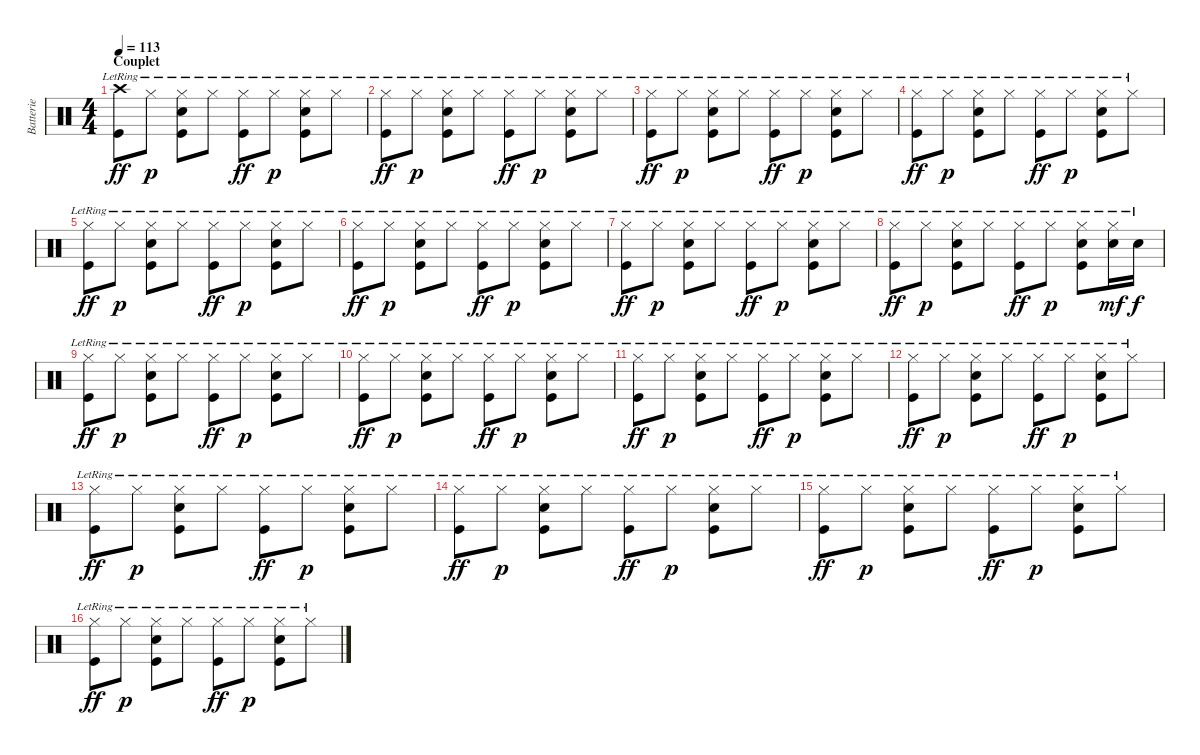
\track ("Batterie" "Batterie") {instrument percussion}
\staff {score}
\articulation defaults
\ts (4 4)
\section ("" "Couplet")
\tempo 113
\clef neutral
\ks c
("Crash high (hit)"{lr} "Kick (hit)"{lr}).8{dy ff} "Hi-Hat (closed)"{lr}.8{dy p} ("Hi-Hat (closed)"{lr} "Snare (hit) 2"{lr} "Kick (hit)"{lr}).8 "Hi-Hat (closed)"{lr}.8 ("Hi-Hat (closed)"{lr} "Kick (hit)"{lr}).8{dy ff} "Hi-Hat (closed)"{lr}.8{dy p} ("Hi-Hat (closed)"{lr} "Snare (hit) 2"{lr} "Kick (hit)"{lr}).8 "Hi-Hat (closed)"{lr}.8 |
("Hi-Hat (closed)"{lr} "Kick (hit)"{lr}).8{dy ff} "Hi-Hat (closed)"{lr}.8{dy p} ("Hi-Hat (closed)"{lr} "Snare (hit) 2"{lr} "Kick (hit)"{lr}).8 "Hi-Hat (closed)"{lr}.8 ("Hi-Hat (closed)"{lr} "Kick (hit)"{lr}).8{dy ff} "Hi-Hat (closed)"{lr}.8{dy p} ("Hi-Hat (closed)"{lr} "Snare (hit) 2"{lr} "Kick (hit)"{lr}).8 "Hi-Hat (closed)"{lr}.8 |
("Hi-Hat (closed)"{lr} "Kick (hit)"{lr}).8{dy ff} "Hi-Hat (closed)"{lr}.8{dy p} ("Hi-Hat (closed)"{lr} "Snare (hit) 2"{lr} "Kick (hit)"{lr}).8 "Hi-Hat (closed)"{lr}.8 ("Hi-Hat (closed)"{lr} "Kick (hit)"{lr}).8{dy ff} "Hi-Hat (closed)"{lr}.8{dy p} ("Hi-Hat (closed)"{lr} "Snare (hit) 2"{lr} "Kick (hit)"{lr}).8 "Hi-Hat (closed)"{lr}.8 |
("Hi-Hat (closed)"{lr} "Kick (hit)"{lr}).8{dy ff} "Hi-Hat (closed)"{lr}.8{dy p} ("Hi-Hat (closed)"{lr} "Snare (hit) 2"{lr} "Kick (hit)"{lr}).8 "Hi-Hat (closed)"{lr}.8 ("Hi-Hat (closed)"{lr} "Kick (hit)"{lr}).8{dy ff} "Hi-Hat (closed)"{lr}.8{dy p} ("Hi-Hat (closed)"{lr} "Snare (hit) 2"{lr} "Kick (hit)"{lr}).8 "Hi-Hat (closed)"{lr}.8 |
("Hi-Hat (closed)"{lr} "Kick (hit)"{lr}).8{dy ff} "Hi-Hat (closed)"{lr}.8{dy p} ("Hi-Hat (closed)"{lr} "Snare (hit) 2"{lr} "Kick (hit)"{lr}).8 "Hi-Hat (closed)"{lr}.8 ("Hi-Hat (closed)"{lr} "Kick (hit)"{lr}).8{dy ff} "Hi-Hat (closed)"{lr}.8{dy p} ("Hi-Hat (closed)"{lr} "Snare (hit) 2"{lr} "Kick (hit)"{lr}).8 "Hi-Hat (closed)"{lr}.8 |
("Hi-Hat (closed)"{lr} "Kick (hit)"{lr}).8{dy ff} "Hi-Hat (closed)"{lr}.8{dy p} ("Hi-Hat (closed)"{lr} "Snare (hit) 2"{lr} "Kick (hit)"{lr}).8 "Hi-Hat (closed)"{lr}.8 ("Hi-Hat (closed)"{lr} "Kick (hit)"{lr}).8{dy ff} "Hi-Hat (closed)"{lr}.8{dy p} ("Hi-Hat (closed)"{lr} "Snare (hit) 2"{lr} "Kick (hit)"{lr}).8 "Hi-Hat (closed)"{lr}.8 |
("Hi-Hat (closed)"{lr} "Kick (hit)"{lr}).8{dy ff} "Hi-Hat (closed)"{lr}.8{dy p} ("Hi-Hat (closed)"{lr} "Snare (hit) 2"{lr} "Kick (hit)"{lr}).8 "Hi-Hat (closed)"{lr}.8 ("Hi-Hat (closed)"{lr} "Kick (hit)"{lr}).8{dy ff} "Hi-Hat (closed)"{lr}.8{dy p} ("Hi-Hat (closed)"{lr} "Snare (hit) 2"{lr} "Kick (hit)"{lr}).8 "Hi-Hat (closed)"{lr}.8 |
("Hi-Hat (closed)"{lr} "Kick (hit)"{lr}).8{dy ff} "Hi-Hat (closed)"{lr}.8{dy p} ("Hi-Hat (closed)"{lr} "Snare (hit) 2"{lr} "Kick (hit)"{lr}).8 "Hi-Hat (closed)"{lr}.8 ("Hi-Hat (closed)"{lr} "Kick (hit)"{lr}).8{dy ff} "Hi-Hat (closed)"{lr}.8{dy p} ("Hi-Hat (closed)"{lr} "Snare (hit) 2"{lr} "Kick (hit)"{lr}).8 ("Hi-Hat (closed)"{lr} "Snare (hit) 2"{lr}).16{dy mf} "Snare (hit) 2"{lr}.16{dy f} |
("Hi-Hat (closed)"{lr} "Kick (hit)"{lr}).8{dy ff} "Hi-Hat (closed)"{lr}.8{dy p} ("Hi-Hat (closed)"{lr} "Snare (hit) 2"{lr} "Kick (hit)"{lr}).8 "Hi-Hat (closed)"{lr}.8 ("Hi-Hat (closed)"{lr} "Kick (hit)"{lr}).8{dy ff} "Hi-Hat (closed)"{lr}.8{dy p} ("Hi-Hat (closed)"{lr} "Snare (hit) 2"{lr} "Kick (hit)"{lr}).8 "Hi-Hat (closed)"{lr}.8 |
("Hi-Hat (closed)"{lr} "Kick (hit)"{lr}).8{dy ff} "Hi-Hat (closed)"{lr}.8{dy p} ("Hi-Hat (closed)"{lr} "Snare (hit) 2"{lr} "Kick (hit)"{lr}).8 "Hi-Hat (closed)"{lr}.8 ("Hi-Hat (closed)"{lr} "Kick (hit)"{lr}).8{dy ff} "Hi-Hat (closed)"{lr}.8{dy p} ("Hi-Hat (closed)"{lr} "Snare (hit) 2"{lr} "Kick (hit)"{lr}).8 "Hi-Hat (closed)"{lr}.8 |
("Hi-Hat (closed)"{lr} "Kick (hit)"{lr}).8{dy ff} "Hi-Hat (closed)"{lr}.8{dy p} ("Hi-Hat (closed)"{lr} "Snare (hit) 2"{lr} "Kick (hit)"{lr}).8 "Hi-Hat (closed)"{lr}.8 ("Hi-Hat (closed)"{lr} "Kick (hit)"{lr}).8{dy ff} "Hi-Hat (closed)"{lr}.8{dy p} ("Hi-Hat (closed)"{lr} "Snare (hit) 2"{lr} "Kick (hit)"{lr}).8 "Hi-Hat (closed)"{lr}.8 |
("Hi-Hat (closed)"{lr} "Kick (hit)"{lr}).8{dy ff} "Hi-Hat (closed)"{lr}.8{dy p} ("Hi-Hat (closed)"{lr} "Snare (hit) 2"{lr} "Kick (hit)"{lr}).8 "Hi-Hat (closed)"{lr}.8 ("Hi-Hat (closed)"{lr} "Kick (hit)"{lr}).8{dy ff} "Hi-Hat (closed)"{lr}.8{dy p} ("Hi-Hat (closed)"{lr} "Snare (hit) 2"{lr} "Kick (hit)"{lr}).8 "Hi-Hat (closed)"{lr}.8 |
("Hi-Hat (closed)"{lr} "Kick (hit)"{lr}).8{dy ff} "Hi-Hat (closed)"{lr}.8{dy p} ("Hi-Hat (closed)"{lr} "Snare (hit) 2"{lr} "Kick (hit)"{lr}).8 "Hi-Hat (closed)"{lr}.8 ("Hi-Hat (closed)"{lr} "Kick (hit)"{lr}).8{dy ff} "Hi-Hat (closed)"{lr}.8{dy p} ("Hi-Hat (closed)"{lr} "Snare (hit) 2"{lr} "Kick (hit)"{lr}).8 "Hi-Hat (closed)"{lr}.8 |
("Hi-Hat (closed)"{lr} "Kick (hit)"{lr}).8{dy ff} "Hi-Hat (closed)"{lr}.8{dy p} ("Hi-Hat (closed)"{lr} "Snare (hit) 2"{lr} "Kick (hit)"{lr}).8 "Hi-Hat (closed)"{lr}.8 ("Hi-Hat (closed)"{lr} "Kick (hit)"{lr}).8{dy ff} "Hi-Hat (closed)"{lr}.8{dy p} ("Hi-Hat (closed)"{lr} "Snare (hit) 2"{lr} "Kick (hit)"{lr}).8 "Hi-Hat (closed)"{lr}.8 |
("Hi-Hat (closed)"{lr} "Kick (hit)"{lr}).8{dy ff} "Hi-Hat (closed)"{lr}.8{dy p} ("Hi-Hat (closed)"{lr} "Snare (hit) 2"{lr} "Kick (hit)"{lr}).8 "Hi-Hat (closed)"{lr}.8 ("Hi-Hat (closed)"{lr} "Kick (hit)"{lr}).8{dy ff} "Hi-Hat (closed)"{lr}.8{dy p} ("Hi-Hat (closed)"{lr} "Snare (hit) 2"{lr} "Kick (hit)"{lr}).8 "Hi-Hat (closed)"{lr}.8 |
("Hi-Hat (closed)"{lr} "Kick (hit)"{lr}).8{dy ff} "Hi-Hat (closed)"{lr}.8{dy p} ("Hi-Hat (closed)"{lr} "Snare (hit) 2"{lr} "Kick (hit)"{lr}).8 "Hi-Hat (closed)"{lr}.8 ("Hi-Hat (closed)"{lr} "Kick (hit)"{lr}).8{dy ff} "Hi-Hat (closed)"{lr}.8{dy p} ("Hi-Hat (closed)"{lr} "Snare (hit) 2"{lr} "Kick (hit)"{lr}).8 "Hi-Hat (closed)"{lr}.8
